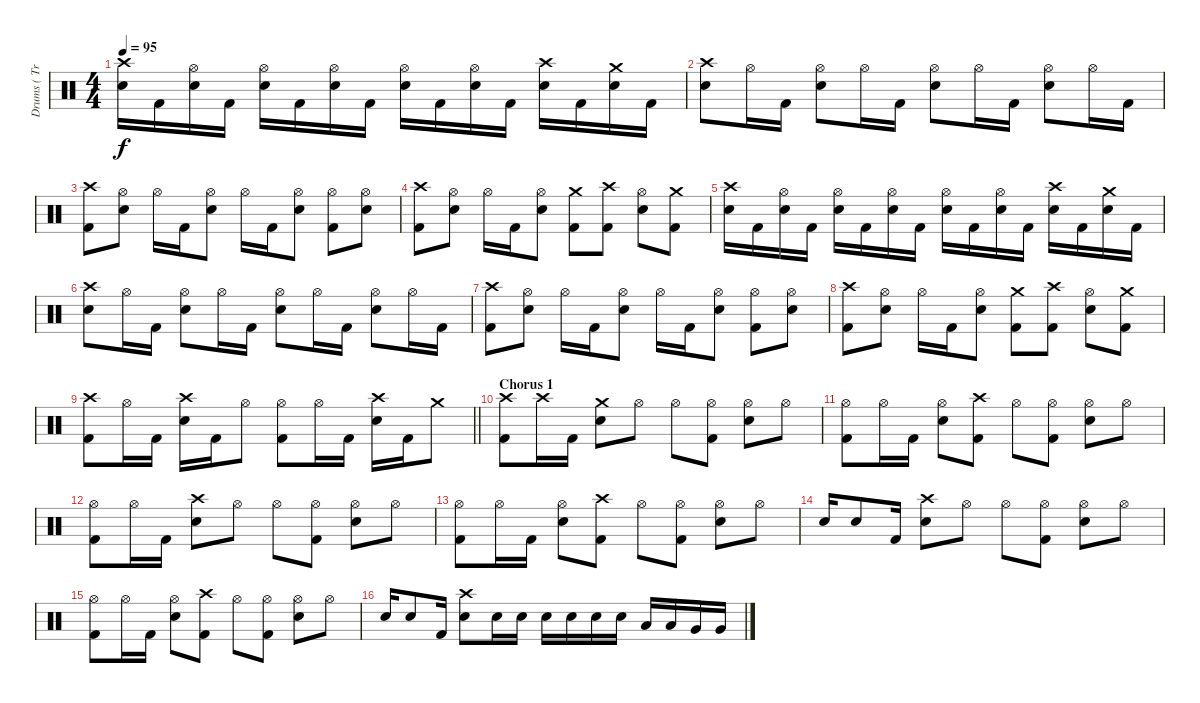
\track ("Drums ( Trivett Wingo )" "Drums ( Tr") {instrument percussion}
\staff {score}
\articulation defaults
\ts (4 4)
\tempo 95
\clef neutral
\ks c
("Crash high (hit)" "Electric Snare (hit)").16{dy f} "Kick (hit) 2".16 ("Hi-Hat (open)" "Electric Snare (hit)").16 "Kick (hit) 2".16 ("Hi-Hat (open)" "Electric Snare (hit)").16 "Kick (hit) 2".16 ("Hi-Hat (open)" "Electric Snare (hit)").16 "Kick (hit) 2".16 ("Hi-Hat (open)" "Electric Snare (hit)").16 "Kick (hit) 2".16 ("Hi-Hat (open)" "Electric Snare (hit)").16 "Kick (hit) 2".16 ("Crash high (hit)" "Electric Snare (hit)").16 "Kick (hit) 2".16 ("Crash medium (hit)" "Electric Snare (hit)").16 "Kick (hit) 2".16 |
("Crash high (hit)" "Electric Snare (hit)").8 "Hi-Hat (open)".16 "Kick (hit) 2".16 ("Hi-Hat (open)" "Electric Snare (hit)").8 "Hi-Hat (open)".16 "Kick (hit) 2".16 ("Hi-Hat (open)" "Electric Snare (hit)").8 "Hi-Hat (open)".16 "Kick (hit) 2".16 ("Hi-Hat (open)" "Electric Snare (hit)").8 "Hi-Hat (open)".16 "Kick (hit) 2".16 |
("Crash high (hit)" "Kick (hit) 2").8 ("Hi-Hat (open)" "Electric Snare (hit)").8 "Hi-Hat (open)".16 "Kick (hit) 2".16 ("Hi-Hat (open)" "Electric Snare (hit)").8 "Hi-Hat (open)".16 "Kick (hit) 2".16 ("Hi-Hat (open)" "Electric Snare (hit)").8 ("Hi-Hat (open)" "Kick (hit) 2").8 ("Hi-Hat (open)" "Electric Snare (hit)").8 |
("Crash high (hit)" "Kick (hit) 2").8 ("Hi-Hat (open)" "Electric Snare (hit)").8 "Hi-Hat (open)".16 "Kick (hit) 2".16 ("Hi-Hat (open)" "Electric Snare (hit)").8 ("Crash medium (hit)" "Kick (hit) 2").8 ("Crash high (hit)" "Kick (hit) 2").8 ("Hi-Hat (open)" "Electric Snare (hit)").8 ("Crash medium (hit)" "Kick (hit) 2").8 |
("Crash high (hit)" "Electric Snare (hit)").16 "Kick (hit) 2".16 ("Hi-Hat (open)" "Electric Snare (hit)").16 "Kick (hit) 2".16 ("Hi-Hat (open)" "Electric Snare (hit)").16 "Kick (hit) 2".16 ("Hi-Hat (open)" "Electric Snare (hit)").16 "Kick (hit) 2".16 ("Hi-Hat (open)" "Electric Snare (hit)").16 "Kick (hit) 2".16 ("Hi-Hat (open)" "Electric Snare (hit)").16 "Kick (hit) 2".16 ("Crash high (hit)" "Electric Snare (hit)").16 "Kick (hit) 2".16 ("Crash medium (hit)" "Electric Snare (hit)").16 "Kick (hit) 2".16 |
("Crash high (hit)" "Electric Snare (hit)").8 "Hi-Hat (open)".16 "Kick (hit) 2".16 ("Hi-Hat (open)" "Electric Snare (hit)").8 "Hi-Hat (open)".16 "Kick (hit) 2".16 ("Hi-Hat (open)" "Electric Snare (hit)").8 "Hi-Hat (open)".16 "Kick (hit) 2".16 ("Hi-Hat (open)" "Electric Snare (hit)").8 "Hi-Hat (open)".16 "Kick (hit) 2".16 |
("Crash high (hit)" "Kick (hit) 2").8 ("Hi-Hat (open)" "Electric Snare (hit)").8 "Hi-Hat (open)".16 "Kick (hit) 2".16 ("Hi-Hat (open)" "Electric Snare (hit)").8 "Hi-Hat (open)".16 "Kick (hit) 2".16 ("Hi-Hat (open)" "Electric Snare (hit)").8 ("Hi-Hat (open)" "Kick (hit) 2").8 ("Hi-Hat (open)" "Electric Snare (hit)").8 |
("Crash high (hit)" "Kick (hit) 2").8 ("Hi-Hat (open)" "Electric Snare (hit)").8 "Hi-Hat (open)".16 "Kick (hit) 2".16 ("Hi-Hat (open)" "Electric Snare (hit)").8 ("Crash medium (hit)" "Kick (hit) 2").8 ("Crash high (hit)" "Kick (hit) 2").8 ("Hi-Hat (open)" "Electric Snare (hit)").8 ("Crash medium (hit)" "Kick (hit) 2").8 |
\barLineRight lightlight
("Crash high (hit)" "Kick (hit) 2").8 "Hi-Hat (open)".16 "Kick (hit) 2".16 ("Crash high (hit)" "Electric Snare (hit)").16 "Kick (hit) 2".16 "Hi-Hat (open)".8 ("Hi-Hat (open)" "Kick (hit) 2").8 "Hi-Hat (open)".16 "Kick (hit) 2".16 ("Crash high (hit)" "Electric Snare (hit)").16 "Kick (hit) 2".16 "Crash medium (hit)".8 |
\section ("" "Chorus 1")
("Crash high (hit)" "Kick (hit) 2").8 "Crash high (hit)".16 "Kick (hit) 2".16 ("Crash medium (hit)" "Electric Snare (hit)").8 "Hi-Hat (open)".8 "Hi-Hat (open)".8 ("Hi-Hat (open)" "Kick (hit) 2").8 ("Hi-Hat (open)" "Electric Snare (hit)").8 "Hi-Hat (open)".8 |
("Hi-Hat (open)" "Kick (hit) 2").8 "Hi-Hat (open)".16 "Kick (hit) 2".16 ("Hi-Hat (open)" "Electric Snare (hit)").8 ("Crash high (hit)" "Kick (hit) 2").8 "Hi-Hat (open)".8 ("Hi-Hat (open)" "Kick (hit) 2").8 ("Hi-Hat (open)" "Electric Snare (hit)").8 "Hi-Hat (open)".8 |
("Hi-Hat (open)" "Kick (hit) 2").8 "Hi-Hat (open)".16 "Kick (hit) 2".16 ("Crash high (hit)" "Electric Snare (hit)").8 "Hi-Hat (open)".8 "Hi-Hat (open)".8 ("Hi-Hat (open)" "Kick (hit) 2").8 ("Hi-Hat (open)" "Electric Snare (hit)").8 "Hi-Hat (open)".8 |
("Hi-Hat (open)" "Kick (hit) 2").8 "Hi-Hat (open)".16 "Kick (hit) 2".16 ("Hi-Hat (open)" "Electric Snare (hit)").8 ("Crash high (hit)" "Kick (hit) 2").8 "Hi-Hat (open)".8 ("Hi-Hat (open)" "Kick (hit) 2").8 ("Hi-Hat (open)" "Electric Snare (hit)").8 "Hi-Hat (open)".8 |
"Electric Snare (hit)".16 "Electric Snare (hit)".8 "Kick (hit) 2".16 ("Crash high (hit)" "Electric Snare (hit)").8 "Hi-Hat (open)".8 "Hi-Hat (open)".8 ("Hi-Hat (open)" "Kick (hit) 2").8 ("Hi-Hat (open)" "Electric Snare (hit)").8 "Hi-Hat (open)".8 |
("Hi-Hat (open)" "Kick (hit) 2").8 "Hi-Hat (open)".16 "Kick (hit) 2".16 ("Hi-Hat (open)" "Electric Snare (hit)").8 ("Crash high (hit)" "Kick (hit) 2").8 "Hi-Hat (open)".8 ("Hi-Hat (open)" "Kick (hit) 2").8 ("Hi-Hat (open)" "Electric Snare (hit)").8 "Hi-Hat (open)".8 |
"Electric Snare (hit)".16 "Electric Snare (hit)".8 "Kick (hit) 2".16 ("Crash high (hit)" "Electric Snare (hit)").8 "Electric Snare (hit)".16 "Electric Snare (hit)".16 "Electric Snare (hit)".16 "Electric Snare (hit)".16 "Electric Snare (hit)".16 "Electric Snare (hit)".16 "Low Tom (hit)".16 "Low Tom (hit)".16 "Very Low Tom (hit)".16 "Very Low Tom (hit)".16
